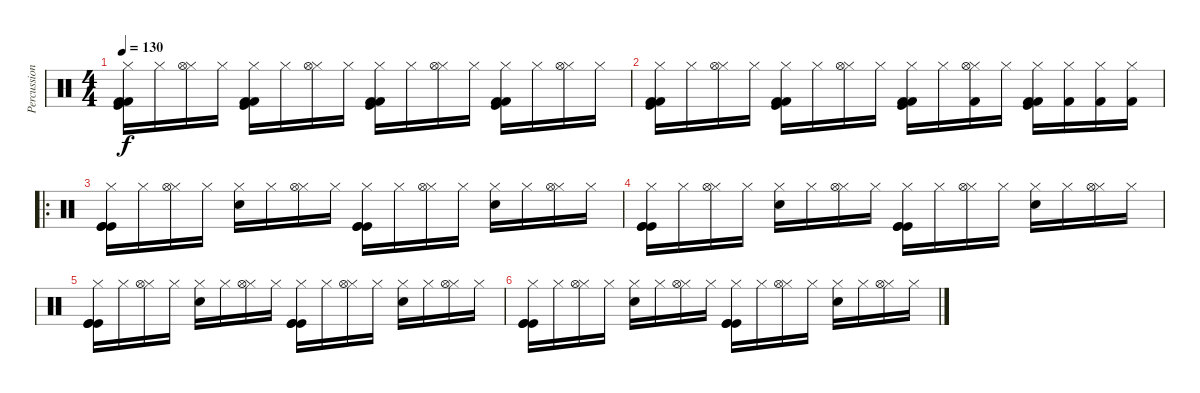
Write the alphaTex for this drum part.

\track ("Percussion" "Percussion") {instrument percussion}
\staff {score}
\articulation defaults
\ts (4 4)
\tempo 130
\clef neutral
\ks c
("Hi-Hat (closed)" "Kick (hit)" "Kick (hit) 2" "Kick (hit) 2").16{dy f} "Hi-Hat (closed)".16 ("Hi-Hat (closed)" "Hi-Hat (open)").16 "Hi-Hat (closed)".16 ("Hi-Hat (closed)" "Kick (hit) 2" "Kick (hit) 2" "Kick (hit)").16 "Hi-Hat (closed)".16 ("Hi-Hat (closed)" "Hi-Hat (open)").16 "Hi-Hat (closed)".16 ("Hi-Hat (closed)" "Kick (hit)" "Kick (hit) 2" "Kick (hit) 2").16 "Hi-Hat (closed)".16 ("Hi-Hat (closed)" "Hi-Hat (open)").16 "Hi-Hat (closed)".16 ("Hi-Hat (closed)" "Kick (hit) 2" "Kick (hit) 2" "Kick (hit)").16 "Hi-Hat (closed)".16 ("Hi-Hat (closed)" "Hi-Hat (open)").16 "Hi-Hat (closed)".16 |
("Hi-Hat (closed)" "Kick (hit)" "Kick (hit) 2" "Kick (hit) 2").16 "Hi-Hat (closed)".16 ("Hi-Hat (closed)" "Hi-Hat (open)").16 "Hi-Hat (closed)".16 ("Hi-Hat (closed)" "Kick (hit) 2" "Kick (hit) 2" "Kick (hit)").16 "Hi-Hat (closed)".16 ("Hi-Hat (closed)" "Hi-Hat (open)").16 "Hi-Hat (closed)".16 ("Hi-Hat (closed)" "Kick (hit)" "Kick (hit) 2" "Kick (hit) 2").16 "Hi-Hat (closed)".16 ("Hi-Hat (closed)" "Kick (hit) 2" "Hi-Hat (open)").16 "Hi-Hat (closed)".16 ("Hi-Hat (closed)" "Kick (hit) 2" "Kick (hit) 2" "Kick (hit)").16 ("Hi-Hat (closed)" "Kick (hit) 2").16 ("Hi-Hat (closed)" "Kick (hit) 2").16 ("Hi-Hat (closed)" "Kick (hit) 2").16 |
\ro
("Hi-Hat (closed)" "Kick (hit)" "Kick (hit)" "Kick (hit)").16 "Hi-Hat (closed)".16 ("Hi-Hat (closed)" "Hi-Hat (open)").16 "Hi-Hat (closed)".16 ("Hi-Hat (closed)" "Electric Snare (hit)").16 "Hi-Hat (closed)".16 ("Hi-Hat (closed)" "Hi-Hat (open)").16 "Hi-Hat (closed)".16 ("Hi-Hat (closed)" "Kick (hit)" "Kick (hit)" "Kick (hit)").16 "Hi-Hat (closed)".16 ("Hi-Hat (closed)" "Hi-Hat (open)").16 "Hi-Hat (closed)".16 ("Hi-Hat (closed)" "Electric Snare (hit)").16 "Hi-Hat (closed)".16 ("Hi-Hat (closed)" "Hi-Hat (open)").16 "Hi-Hat (closed)".16 |
("Hi-Hat (closed)" "Kick (hit)" "Kick (hit)" "Kick (hit)").16 "Hi-Hat (closed)".16 ("Hi-Hat (closed)" "Hi-Hat (open)").16 "Hi-Hat (closed)".16 ("Hi-Hat (closed)" "Electric Snare (hit)").16 "Hi-Hat (closed)".16 ("Hi-Hat (closed)" "Hi-Hat (open)").16 "Hi-Hat (closed)".16 ("Hi-Hat (closed)" "Kick (hit)" "Kick (hit)" "Kick (hit)").16 "Hi-Hat (closed)".16 ("Hi-Hat (closed)" "Hi-Hat (open)").16 "Hi-Hat (closed)".16 ("Hi-Hat (closed)" "Electric Snare (hit)").16 "Hi-Hat (closed)".16 ("Hi-Hat (closed)" "Hi-Hat (open)").16 "Hi-Hat (closed)".16 |
("Hi-Hat (closed)" "Kick (hit)" "Kick (hit)" "Kick (hit)").16 "Hi-Hat (closed)".16 ("Hi-Hat (closed)" "Hi-Hat (open)").16 "Hi-Hat (closed)".16 ("Hi-Hat (closed)" "Electric Snare (hit)").16 "Hi-Hat (closed)".16 ("Hi-Hat (closed)" "Hi-Hat (open)").16 "Hi-Hat (closed)".16 ("Hi-Hat (closed)" "Kick (hit)" "Kick (hit)" "Kick (hit)").16 "Hi-Hat (closed)".16 ("Hi-Hat (closed)" "Hi-Hat (open)").16 "Hi-Hat (closed)".16 ("Hi-Hat (closed)" "Electric Snare (hit)").16 "Hi-Hat (closed)".16 ("Hi-Hat (closed)" "Hi-Hat (open)").16 "Hi-Hat (closed)".16 |
("Hi-Hat (closed)" "Kick (hit)" "Kick (hit)" "Kick (hit)").16 "Hi-Hat (closed)".16 ("Hi-Hat (closed)" "Hi-Hat (open)").16 "Hi-Hat (closed)".16 ("Hi-Hat (closed)" "Electric Snare (hit)").16 "Hi-Hat (closed)".16 ("Hi-Hat (closed)" "Hi-Hat (open)").16 "Hi-Hat (closed)".16 ("Hi-Hat (closed)" "Kick (hit)" "Kick (hit)" "Kick (hit)").16 "Hi-Hat (closed)".16 ("Hi-Hat (closed)" "Hi-Hat (open)").16 "Hi-Hat (closed)".16 ("Hi-Hat (closed)" "Electric Snare (hit)").16 "Hi-Hat (closed)".16 ("Hi-Hat (closed)" "Hi-Hat (open)").16 "Hi-Hat (closed)".16
